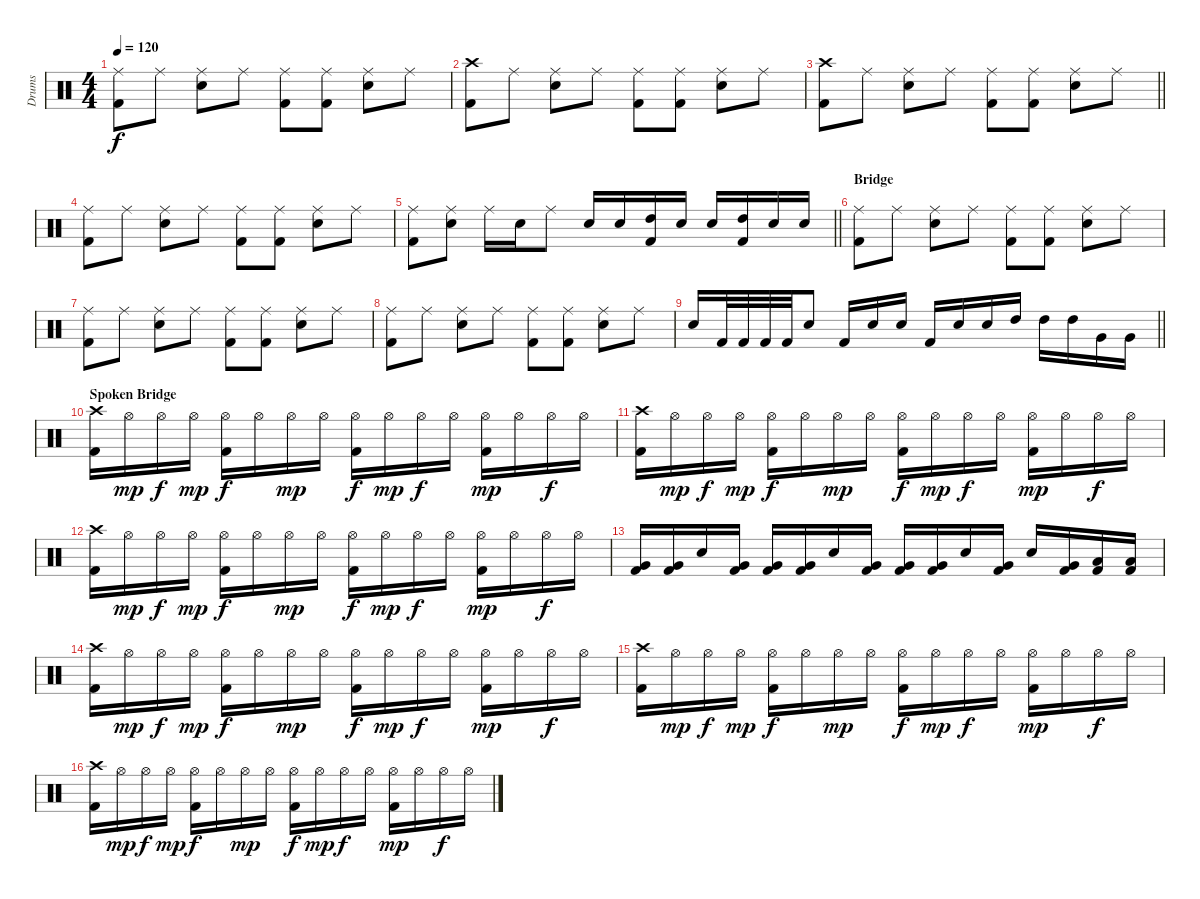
\track ("Drums" "Drums") {instrument percussion}
\staff {score}
\articulation defaults
\ts (4 4)
\tempo 120
\clef neutral
\ks c
("Ride (middle)" "Kick (hit) 2").8{dy f} "Ride (middle)".8 ("Ride (middle)" "Snare (hit) 2").8 "Ride (middle)".8 ("Ride (middle)" "Kick (hit) 2").8 ("Ride (middle)" "Kick (hit) 2").8 ("Ride (middle)" "Snare (hit) 2").8 "Ride (middle)".8 |
("Crash high (hit)" "Kick (hit) 2").8 "Ride (middle)".8 ("Ride (middle)" "Snare (hit) 2").8 "Ride (middle)".8 ("Ride (middle)" "Kick (hit) 2").8 ("Ride (middle)" "Kick (hit) 2").8 ("Ride (middle)" "Snare (hit) 2").8 "Ride (middle)".8 |
\barLineRight lightlight
("Crash high (hit)" "Kick (hit) 2").8 "Ride (middle)".8 ("Ride (middle)" "Snare (hit) 2").8 "Ride (middle)".8 ("Ride (middle)" "Kick (hit) 2").8 ("Ride (middle)" "Kick (hit) 2").8 ("Ride (middle)" "Snare (hit) 2").8 "Ride (middle)".8 |
("Ride (middle)" "Kick (hit) 2").8 "Ride (middle)".8 ("Ride (middle)" "Snare (hit) 2").8 "Ride (middle)".8 ("Ride (middle)" "Kick (hit) 2").8 ("Ride (middle)" "Kick (hit) 2").8 ("Ride (middle)" "Snare (hit) 2").8 "Ride (middle)".8 |
\barLineRight lightlight
("Ride (middle)" "Kick (hit) 2").8 ("Ride (middle)" "Snare (hit) 2").8 "Ride (middle)".16 "Snare (hit) 2".16 "Ride (middle)".8 "Snare (hit) 2".16 "Snare (hit) 2".16 ("High Tom (hit)" "Kick (hit) 2").16 "Snare (hit) 2".16 "Snare (hit) 2".16 ("High Tom (hit)" "Kick (hit) 2").16 "Snare (hit) 2".16 "Snare (hit) 2".16 |
\section ("" "Bridge")
("Ride (middle)" "Kick (hit) 2").8 "Ride (middle)".8 ("Ride (middle)" "Snare (hit) 2").8 "Ride (middle)".8 ("Ride (middle)" "Kick (hit) 2").8 ("Ride (middle)" "Kick (hit) 2").8 ("Ride (middle)" "Snare (hit) 2").8 "Ride (middle)".8 |
("Ride (middle)" "Kick (hit) 2").8 "Ride (middle)".8 ("Ride (middle)" "Snare (hit) 2").8 "Ride (middle)".8 ("Ride (middle)" "Kick (hit) 2").8 ("Ride (middle)" "Kick (hit) 2").8 ("Ride (middle)" "Snare (hit) 2").8 "Ride (middle)".8 |
("Ride (middle)" "Kick (hit) 2").8 "Ride (middle)".8 ("Ride (middle)" "Snare (hit) 2").8 "Ride (middle)".8 ("Ride (middle)" "Kick (hit) 2").8 ("Ride (middle)" "Kick (hit) 2").8 ("Ride (middle)" "Snare (hit) 2").8 "Ride (middle)".8 |
\barLineRight lightlight "Snare (hit) 2".16 "Kick (hit) 2".32 "Kick (hit) 2".32 "Kick (hit) 2".32 "Kick (hit) 2".32 "Snare (hit) 2".8 "Kick (hit) 2".16 "Snare (hit) 2".16 "Snare (hit) 2".16 "Kick (hit) 2".16 "Snare (hit) 2".16 "Snare (hit) 2".16 "High Tom (hit)".16 "High Tom (hit)".16 "High Tom (hit)".16 "Very Low Tom (hit)".16 "Very Low Tom (hit)".16
|
\section ("" "Spoken Bridge")
("Crash high (hit)" "Kick (hit) 2").16 "Hi-Hat (open)".16{dy mp} "Hi-Hat (open)".16{dy f} "Hi-Hat (open)".16{dy mp} ("Hi-Hat (open)" "Kick (hit) 2").16{dy f} "Hi-Hat (open)".16 "Hi-Hat (open)".16{dy mp} "Hi-Hat (open)".16 ("Hi-Hat (open)" "Kick (hit) 2").16{dy f} "Hi-Hat (open)".16{dy mp} "Hi-Hat (open)".16{dy f} "Hi-Hat (open)".16 ("Hi-Hat (open)" "Kick (hit) 2").16{dy mp} "Hi-Hat (open)".16 "Hi-Hat (open)".16{dy f} "Hi-Hat (open)".16 |
("Crash high (hit)" "Kick (hit) 2").16 "Hi-Hat (open)".16{dy mp} "Hi-Hat (open)".16{dy f} "Hi-Hat (open)".16{dy mp} ("Hi-Hat (open)" "Kick (hit) 2").16{dy f} "Hi-Hat (open)".16 "Hi-Hat (open)".16{dy mp} "Hi-Hat (open)".16 ("Hi-Hat (open)" "Kick (hit) 2").16{dy f} "Hi-Hat (open)".16{dy mp} "Hi-Hat (open)".16{dy f} "Hi-Hat (open)".16 ("Hi-Hat (open)" "Kick (hit) 2").16{dy mp} "Hi-Hat (open)".16 "Hi-Hat (open)".16{dy f} "Hi-Hat (open)".16 |
("Crash high (hit)" "Kick (hit) 2").16 "Hi-Hat (open)".16{dy mp} "Hi-Hat (open)".16{dy f} "Hi-Hat (open)".16{dy mp} ("Hi-Hat (open)" "Kick (hit) 2").16{dy f} "Hi-Hat (open)".16 "Hi-Hat (open)".16{dy mp} "Hi-Hat (open)".16 ("Hi-Hat (open)" "Kick (hit) 2").16{dy f} "Hi-Hat (open)".16{dy mp} "Hi-Hat (open)".16{dy f} "Hi-Hat (open)".16 ("Hi-Hat (open)" "Kick (hit) 2").16{dy mp} "Hi-Hat (open)".16 "Hi-Hat (open)".16{dy f} "Hi-Hat (open)".16 |
("Very Low Tom (hit)" "Kick (hit) 2").16 ("Very Low Tom (hit)" "Kick (hit) 2").16 "Snare (hit) 2".16 ("Very Low Tom (hit)" "Kick (hit) 2").16 ("Very Low Tom (hit)" "Kick (hit) 2").16 ("Very Low Tom (hit)" "Kick (hit) 2").16 "Snare (hit) 2".16 ("Very Low Tom (hit)" "Kick (hit) 2").16 ("Very Low Tom (hit)" "Kick (hit) 2").16 ("Very Low Tom (hit)" "Kick (hit) 2").16 "Snare (hit) 2".16 ("Very Low Tom (hit)" "Kick (hit) 2").16 "Snare (hit) 2".16 ("Very Low Tom (hit)" "Kick (hit) 2").16 ("Low Floor Tom (hit)" "Kick (hit) 2").16 ("Low Floor Tom (hit)" "Kick (hit) 2").16 |
("Crash high (hit)" "Kick (hit) 2").16 "Hi-Hat (open)".16{dy mp} "Hi-Hat (open)".16{dy f} "Hi-Hat (open)".16{dy mp} ("Hi-Hat (open)" "Kick (hit) 2").16{dy f} "Hi-Hat (open)".16 "Hi-Hat (open)".16{dy mp} "Hi-Hat (open)".16 ("Hi-Hat (open)" "Kick (hit) 2").16{dy f} "Hi-Hat (open)".16{dy mp} "Hi-Hat (open)".16{dy f} "Hi-Hat (open)".16 ("Hi-Hat (open)" "Kick (hit) 2").16{dy mp} "Hi-Hat (open)".16 "Hi-Hat (open)".16{dy f} "Hi-Hat (open)".16 |
("Crash high (hit)" "Kick (hit) 2").16 "Hi-Hat (open)".16{dy mp} "Hi-Hat (open)".16{dy f} "Hi-Hat (open)".16{dy mp} ("Hi-Hat (open)" "Kick (hit) 2").16{dy f} "Hi-Hat (open)".16 "Hi-Hat (open)".16{dy mp} "Hi-Hat (open)".16 ("Hi-Hat (open)" "Kick (hit) 2").16{dy f} "Hi-Hat (open)".16{dy mp} "Hi-Hat (open)".16{dy f} "Hi-Hat (open)".16 ("Hi-Hat (open)" "Kick (hit) 2").16{dy mp} "Hi-Hat (open)".16 "Hi-Hat (open)".16{dy f} "Hi-Hat (open)".16 |
("Crash high (hit)" "Kick (hit) 2").16 "Hi-Hat (open)".16{dy mp} "Hi-Hat (open)".16{dy f} "Hi-Hat (open)".16{dy mp} ("Hi-Hat (open)" "Kick (hit) 2").16{dy f} "Hi-Hat (open)".16 "Hi-Hat (open)".16{dy mp} "Hi-Hat (open)".16 ("Hi-Hat (open)" "Kick (hit) 2").16{dy f} "Hi-Hat (open)".16{dy mp} "Hi-Hat (open)".16{dy f} "Hi-Hat (open)".16 ("Hi-Hat (open)" "Kick (hit) 2").16{dy mp} "Hi-Hat (open)".16 "Hi-Hat (open)".16{dy f} "Hi-Hat (open)".16
